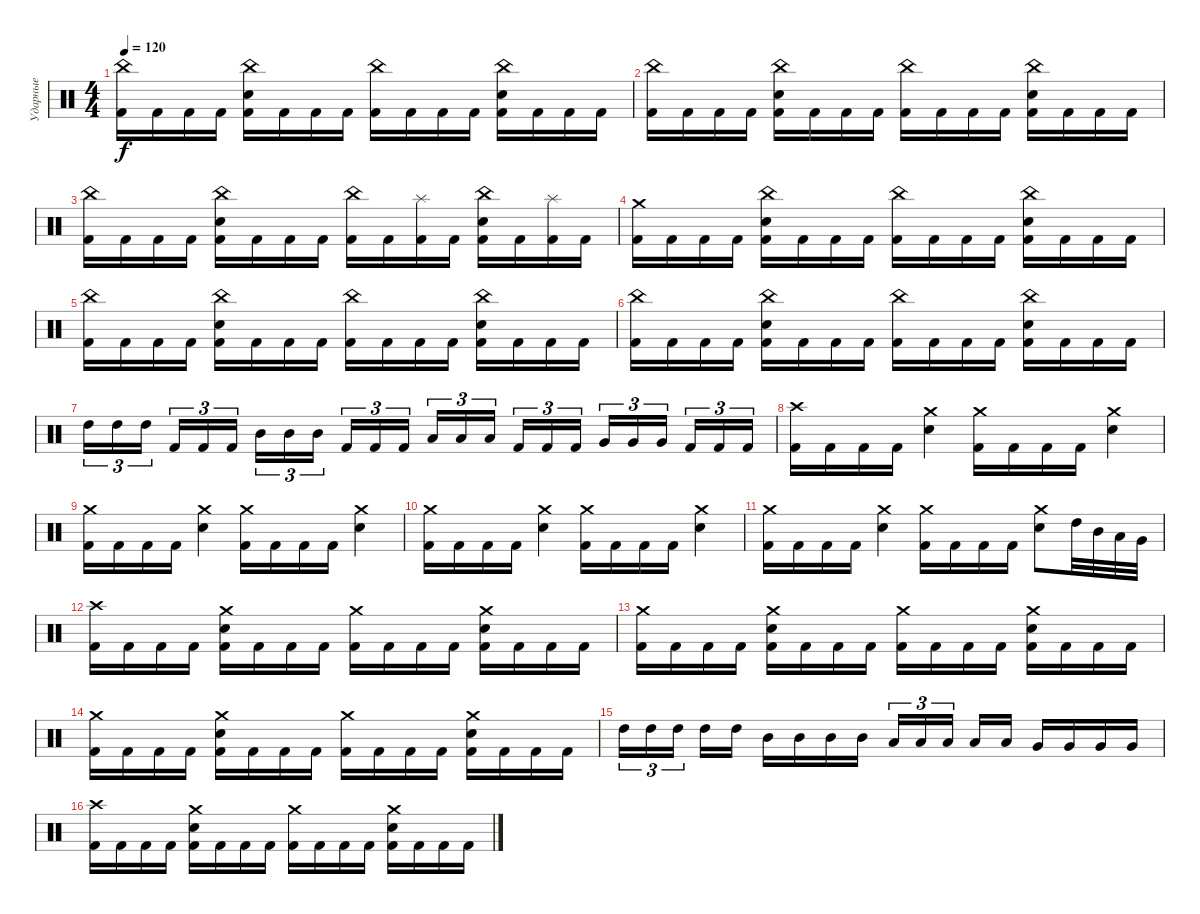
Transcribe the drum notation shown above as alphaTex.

\track ("Ударные" "Ударные") {instrument percussion}
\staff {score}
\articulation defaults
\ts (4 4)
\tempo 120
\clef neutral
\ks c
("China (hit)" "Kick (hit) 2").16{dy f} "Kick (hit) 2".16 "Kick (hit) 2".16 "Kick (hit) 2".16 ("China (hit)" "Electric Snare (hit)" "Kick (hit) 2").16 "Kick (hit) 2".16 "Kick (hit) 2".16 "Kick (hit) 2".16 ("China (hit)" "Kick (hit) 2").16 "Kick (hit) 2".16 "Kick (hit) 2".16 "Kick (hit) 2".16 ("China (hit)" "Electric Snare (hit)" "Kick (hit) 2").16 "Kick (hit) 2".16 "Kick (hit) 2".16 "Kick (hit) 2".16 |
("China (hit)" "Kick (hit) 2").16 "Kick (hit) 2".16 "Kick (hit) 2".16 "Kick (hit) 2".16 ("China (hit)" "Electric Snare (hit)" "Kick (hit) 2").16 "Kick (hit) 2".16 "Kick (hit) 2".16 "Kick (hit) 2".16 ("China (hit)" "Kick (hit) 2").16 "Kick (hit) 2".16 "Kick (hit) 2".16 "Kick (hit) 2".16 ("China (hit)" "Electric Snare (hit)" "Kick (hit) 2").16 "Kick (hit) 2".16 "Kick (hit) 2".16 "Kick (hit) 2".16 |
("China (hit)" "Kick (hit) 2").16 "Kick (hit) 2".16 "Kick (hit) 2".16 "Kick (hit) 2".16 ("China (hit)" "Electric Snare (hit)" "Kick (hit) 2").16 "Kick (hit) 2".16 "Kick (hit) 2".16 "Kick (hit) 2".16 ("China (hit)" "Kick (hit) 2").16 "Kick (hit) 2".16 ("Splash (hit)" "Kick (hit) 2").16 "Kick (hit) 2".16 ("China (hit)" "Electric Snare (hit)" "Kick (hit) 2").16 "Kick (hit) 2".16 ("Splash (hit)" "Kick (hit) 2").16 "Kick (hit) 2".16 |
("Crash medium (hit)" "Kick (hit) 2").16 "Kick (hit) 2".16 "Kick (hit) 2".16 "Kick (hit) 2".16 ("China (hit)" "Electric Snare (hit)" "Kick (hit) 2").16 "Kick (hit) 2".16 "Kick (hit) 2".16 "Kick (hit) 2".16 ("China (hit)" "Kick (hit) 2").16 "Kick (hit) 2".16 "Kick (hit) 2".16 "Kick (hit) 2".16 ("China (hit)" "Electric Snare (hit)" "Kick (hit) 2").16 "Kick (hit) 2".16 "Kick (hit) 2".16 "Kick (hit) 2".16 |
("China (hit)" "Kick (hit) 2").16 "Kick (hit) 2".16 "Kick (hit) 2".16 "Kick (hit) 2".16 ("China (hit)" "Electric Snare (hit)" "Kick (hit) 2").16 "Kick (hit) 2".16 "Kick (hit) 2".16 "Kick (hit) 2".16 ("China (hit)" "Kick (hit) 2").16 "Kick (hit) 2".16 "Kick (hit) 2".16 "Kick (hit) 2".16 ("China (hit)" "Electric Snare (hit)" "Kick (hit) 2").16 "Kick (hit) 2".16 "Kick (hit) 2".16 "Kick (hit) 2".16 |
("China (hit)" "Kick (hit) 2").16 "Kick (hit) 2".16 "Kick (hit) 2".16 "Kick (hit) 2".16 ("China (hit)" "Electric Snare (hit)" "Kick (hit) 2").16 "Kick (hit) 2".16 "Kick (hit) 2".16 "Kick (hit) 2".16 ("China (hit)" "Kick (hit) 2").16 "Kick (hit) 2".16 "Kick (hit) 2".16 "Kick (hit) 2".16 ("China (hit)" "Electric Snare (hit)" "Kick (hit) 2").16 "Kick (hit) 2".16 "Kick (hit) 2".16 "Kick (hit) 2".16 |
"High Tom (hit)".16{tu (3 2)} "High Tom (hit)".16{tu (3 2)} "High Tom (hit)".16{tu (3 2) beam splitsecondary} "Kick (hit) 2".16{tu (3 2)} "Kick (hit) 2".16{tu (3 2)} "Kick (hit) 2".16{tu (3 2)} "Mid Tom (hit)".16{tu (3 2)} "Mid Tom (hit)".16{tu (3 2)} "Mid Tom (hit)".16{tu (3 2) beam splitsecondary} "Kick (hit) 2".16{tu (3 2)} "Kick (hit) 2".16{tu (3 2)} "Kick (hit) 2".16{tu (3 2)} "Low Tom (hit)".16{tu (3 2)} "Low Tom (hit)".16{tu (3 2)} "Low Tom (hit)".16{tu (3 2) beam splitsecondary} "Kick (hit) 2".16{tu (3 2)} "Kick (hit) 2".16{tu (3 2)} "Kick (hit) 2".16{tu (3 2)} "Very Low Tom (hit)".16{tu (3 2)} "Very Low Tom (hit)".16{tu (3 2)} "Very Low Tom (hit)".16{tu (3 2) beam splitsecondary} "Kick (hit) 2".16{tu (3 2)} "Kick (hit) 2".16{tu (3 2)} "Kick (hit) 2".16{tu (3 2)} |
("Crash high (hit)" "Kick (hit) 2").16 "Kick (hit) 2".16 "Kick (hit) 2".16 "Kick (hit) 2".16 ("Crash medium (hit)" "Electric Snare (hit)").4 ("Crash medium (hit)" "Kick (hit) 2").16 "Kick (hit) 2".16 "Kick (hit) 2".16 "Kick (hit) 2".16 ("Crash medium (hit)" "Electric Snare (hit)").4 |
("Crash medium (hit)" "Kick (hit) 2").16 "Kick (hit) 2".16 "Kick (hit) 2".16 "Kick (hit) 2".16 ("Crash medium (hit)" "Electric Snare (hit)").4 ("Crash medium (hit)" "Kick (hit) 2").16 "Kick (hit) 2".16 "Kick (hit) 2".16 "Kick (hit) 2".16 ("Crash medium (hit)" "Electric Snare (hit)").4 |
("Crash medium (hit)" "Kick (hit) 2").16 "Kick (hit) 2".16 "Kick (hit) 2".16 "Kick (hit) 2".16 ("Crash medium (hit)" "Electric Snare (hit)").4 ("Crash medium (hit)" "Kick (hit) 2").16 "Kick (hit) 2".16 "Kick (hit) 2".16 "Kick (hit) 2".16 ("Crash medium (hit)" "Electric Snare (hit)").4 |
("Crash medium (hit)" "Kick (hit) 2").16 "Kick (hit) 2".16 "Kick (hit) 2".16 "Kick (hit) 2".16 ("Crash medium (hit)" "Electric Snare (hit)").4 ("Crash medium (hit)" "Kick (hit) 2").16 "Kick (hit) 2".16 "Kick (hit) 2".16 "Kick (hit) 2".16 ("Crash medium (hit)" "Electric Snare (hit)").8 "High Tom (hit)".32 "Mid Tom (hit)".32 "Low Tom (hit)".32 "Very Low Tom (hit)".32 |
("Crash high (hit)" "Kick (hit) 2").16 "Kick (hit) 2".16 "Kick (hit) 2".16 "Kick (hit) 2".16 ("Crash medium (hit)" "Electric Snare (hit)" "Kick (hit) 2").16 "Kick (hit) 2".16 "Kick (hit) 2".16 "Kick (hit) 2".16 ("Crash medium (hit)" "Kick (hit) 2").16 "Kick (hit) 2".16 "Kick (hit) 2".16 "Kick (hit) 2".16 ("Crash medium (hit)" "Electric Snare (hit)" "Kick (hit) 2").16 "Kick (hit) 2".16 "Kick (hit) 2".16 "Kick (hit) 2".16 |
("Crash medium (hit)" "Kick (hit) 2").16 "Kick (hit) 2".16 "Kick (hit) 2".16 "Kick (hit) 2".16 ("Crash medium (hit)" "Electric Snare (hit)" "Kick (hit) 2").16 "Kick (hit) 2".16 "Kick (hit) 2".16 "Kick (hit) 2".16 ("Crash medium (hit)" "Kick (hit) 2").16 "Kick (hit) 2".16 "Kick (hit) 2".16 "Kick (hit) 2".16 ("Crash medium (hit)" "Electric Snare (hit)" "Kick (hit) 2").16 "Kick (hit) 2".16 "Kick (hit) 2".16 "Kick (hit) 2".16 |
("Crash medium (hit)" "Kick (hit) 2").16 "Kick (hit) 2".16 "Kick (hit) 2".16 "Kick (hit) 2".16 ("Crash medium (hit)" "Electric Snare (hit)" "Kick (hit) 2").16 "Kick (hit) 2".16 "Kick (hit) 2".16 "Kick (hit) 2".16 ("Crash medium (hit)" "Kick (hit) 2").16 "Kick (hit) 2".16 "Kick (hit) 2".16 "Kick (hit) 2".16 ("Crash medium (hit)" "Electric Snare (hit)" "Kick (hit) 2").16 "Kick (hit) 2".16 "Kick (hit) 2".16 "Kick (hit) 2".16 |
"High Tom (hit)".16{tu (3 2)} "High Tom (hit)".16{tu (3 2)} "High Tom (hit)".16{tu (3 2) beam splitsecondary} "High Tom (hit)".16 "High Tom (hit)".16 "Mid Tom (hit)".16 "Mid Tom (hit)".16 "Mid Tom (hit)".16 "Mid Tom (hit)".16 "Low Tom (hit)".16{tu (3 2)} "Low Tom (hit)".16{tu (3 2)} "Low Tom (hit)".16{tu (3 2) beam splitsecondary} "Low Tom (hit)".16 "Low Tom (hit)".16 "Very Low Tom (hit)".16 "Very Low Tom (hit)".16 "Very Low Tom (hit)".16 "Very Low Tom (hit)".16 |
("Crash high (hit)" "Kick (hit) 2").16 "Kick (hit) 2".16 "Kick (hit) 2".16 "Kick (hit) 2".16 ("Crash medium (hit)" "Electric Snare (hit)" "Kick (hit) 2").16 "Kick (hit) 2".16 "Kick (hit) 2".16 "Kick (hit) 2".16 ("Crash medium (hit)" "Kick (hit) 2").16 "Kick (hit) 2".16 "Kick (hit) 2".16 "Kick (hit) 2".16 ("Crash medium (hit)" "Electric Snare (hit)" "Kick (hit) 2").16 "Kick (hit) 2".16 "Kick (hit) 2".16 "Kick (hit) 2".16
